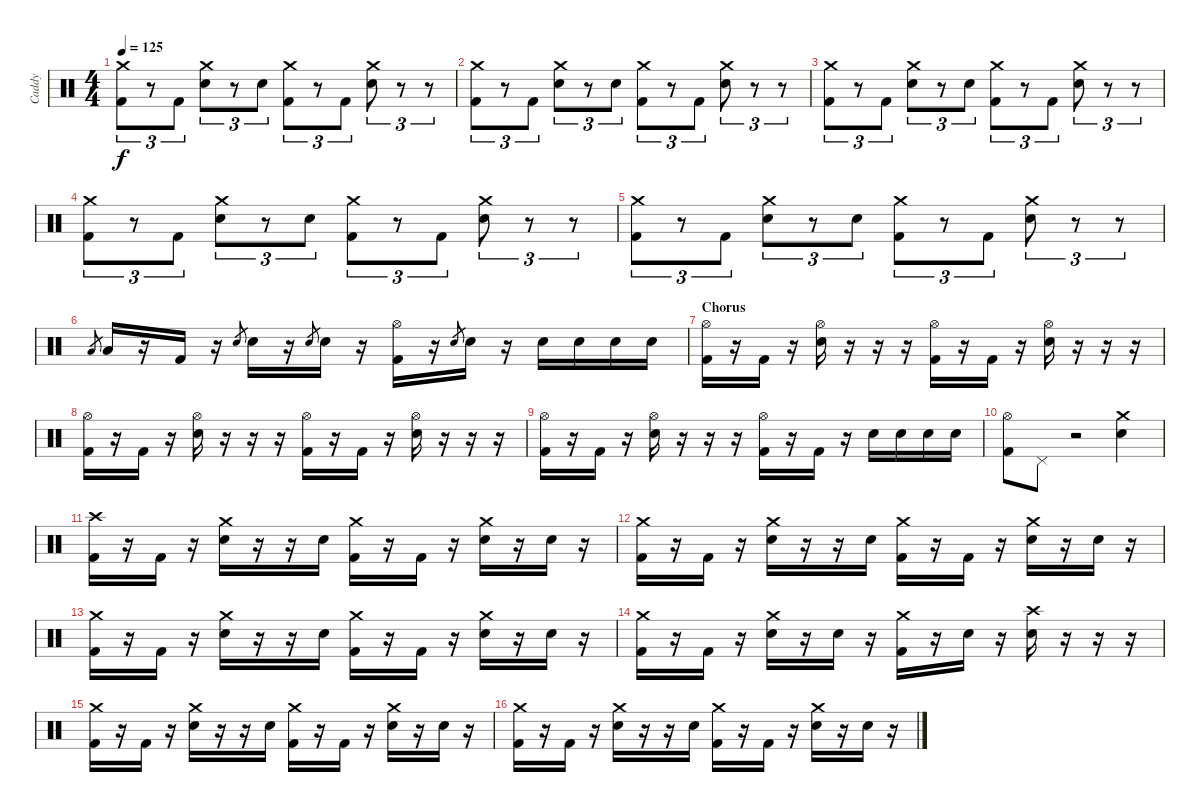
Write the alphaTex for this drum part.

\track ("Caddy" "Caddy") {instrument percussion}
\staff {score}
\articulation defaults
\ts (4 4)
\tempo 125
\clef neutral
\ks c
("Crash medium (hit)" "Kick (hit) 2").8{tu (3 2) dy f} r.8{tu (3 2)} "Kick (hit) 2".8{tu (3 2)} ("Crash medium (hit)" "Electric Snare (hit)").8{tu (3 2)} r.8{tu (3 2)} "Electric Snare (hit)".8{tu (3 2)} ("Crash medium (hit)" "Kick (hit) 2").8{tu (3 2)} r.8{tu (3 2)} "Kick (hit) 2".8{tu (3 2)} ("Crash medium (hit)" "Electric Snare (hit)").8{tu (3 2)} r.8{tu (3 2)} r.8{tu (3 2)} |
("Crash medium (hit)" "Kick (hit) 2").8{tu (3 2)} r.8{tu (3 2)} "Kick (hit) 2".8{tu (3 2)} ("Crash medium (hit)" "Electric Snare (hit)").8{tu (3 2)} r.8{tu (3 2)} "Electric Snare (hit)".8{tu (3 2)} ("Crash medium (hit)" "Kick (hit) 2").8{tu (3 2)} r.8{tu (3 2)} "Kick (hit) 2".8{tu (3 2)} ("Crash medium (hit)" "Electric Snare (hit)").8{tu (3 2)} r.8{tu (3 2)} r.8{tu (3 2)} |
("Crash medium (hit)" "Kick (hit) 2").8{tu (3 2)} r.8{tu (3 2)} "Kick (hit) 2".8{tu (3 2)} ("Crash medium (hit)" "Electric Snare (hit)").8{tu (3 2)} r.8{tu (3 2)} "Electric Snare (hit)".8{tu (3 2)} ("Crash medium (hit)" "Kick (hit) 2").8{tu (3 2)} r.8{tu (3 2)} "Kick (hit) 2".8{tu (3 2)} ("Crash medium (hit)" "Electric Snare (hit)").8{tu (3 2)} r.8{tu (3 2)} r.8{tu (3 2)} |
("Crash medium (hit)" "Kick (hit) 2").8{tu (3 2)} r.8{tu (3 2)} "Kick (hit) 2".8{tu (3 2)} ("Crash medium (hit)" "Electric Snare (hit)").8{tu (3 2)} r.8{tu (3 2)} "Electric Snare (hit)".8{tu (3 2)} ("Crash medium (hit)" "Kick (hit) 2").8{tu (3 2)} r.8{tu (3 2)} "Kick (hit) 2".8{tu (3 2)} ("Crash medium (hit)" "Electric Snare (hit)").8{tu (3 2)} r.8{tu (3 2)} r.8{tu (3 2)} |
("Crash medium (hit)" "Kick (hit) 2").8{tu (3 2)} r.8{tu (3 2)} "Kick (hit) 2".8{tu (3 2)} ("Crash medium (hit)" "Electric Snare (hit)").8{tu (3 2)} r.8{tu (3 2)} "Electric Snare (hit)".8{tu (3 2)} ("Crash medium (hit)" "Kick (hit) 2").8{tu (3 2)} r.8{tu (3 2)} "Kick (hit) 2".8{tu (3 2)} ("Crash medium (hit)" "Electric Snare (hit)").8{tu (3 2)} r.8{tu (3 2)} r.8{tu (3 2)} |
"Low Floor Tom (hit)".8{gr} "Low Floor Tom (hit)".16 r.16 "Kick (hit) 2".16 r.16 "Electric Snare (hit)".8{gr} "Electric Snare (hit)".16 r.16 "Electric Snare (hit)".8{gr} "Electric Snare (hit)".16 r.16 ("Hi-Hat (open)" "Kick (hit) 2").16 r.16 "Electric Snare (hit)".8{gr} "Electric Snare (hit)".16 r.16 "Electric Snare (hit)".16 "Electric Snare (hit)".16 "Electric Snare (hit)".16 "Electric Snare (hit)".16 |
\section ("" "Chorus")
("Hi-Hat (open)" "Kick (hit) 2").16 r.16 "Kick (hit) 2".16 r.16 ("Hi-Hat (open)" "Electric Snare (hit)").16 r.16 r.16 r.16 ("Hi-Hat (open)" "Kick (hit) 2").16 r.16 "Kick (hit) 2".16 r.16 ("Hi-Hat (open)" "Electric Snare (hit)").16 r.16 r.16 r.16 |
("Hi-Hat (open)" "Kick (hit) 2").16 r.16 "Kick (hit) 2".16 r.16 ("Hi-Hat (open)" "Electric Snare (hit)").16 r.16 r.16 r.16 ("Hi-Hat (open)" "Kick (hit) 2").16 r.16 "Kick (hit) 2".16 r.16 ("Hi-Hat (open)" "Electric Snare (hit)").16 r.16 r.16 r.16 |
("Hi-Hat (open)" "Kick (hit) 2").16 r.16 "Kick (hit) 2".16 r.16 ("Hi-Hat (open)" "Electric Snare (hit)").16 r.16 r.16 r.16 ("Hi-Hat (open)" "Kick (hit) 2").16 r.16 "Kick (hit) 2".16 r.16 "Electric Snare (hit)".16 "Electric Snare (hit)".16 "Electric Snare (hit)".16 "Electric Snare (hit)".16 |
("Hi-Hat (open)" "Kick (hit) 2").8 "Pedal Hi-Hat (hit)".8 r.2 ("Crash medium (hit)" "Electric Snare (hit)").4 |
("Crash high (hit)" "Kick (hit) 2").16 r.16 "Kick (hit) 2".16 r.16 ("Crash medium (hit)" "Electric Snare (hit)").16 r.16 r.16 "Electric Snare (hit)".16 ("Crash medium (hit)" "Kick (hit) 2").16 r.16 "Kick (hit) 2".16 r.16 ("Crash medium (hit)" "Electric Snare (hit)").16 r.16 "Electric Snare (hit)".16 r.16 |
("Crash medium (hit)" "Kick (hit) 2").16 r.16 "Kick (hit) 2".16 r.16 ("Crash medium (hit)" "Electric Snare (hit)").16 r.16 r.16 "Electric Snare (hit)".16 ("Crash medium (hit)" "Kick (hit) 2").16 r.16 "Kick (hit) 2".16 r.16 ("Crash medium (hit)" "Electric Snare (hit)").16 r.16 "Electric Snare (hit)".16 r.16 |
("Crash medium (hit)" "Kick (hit) 2").16 r.16 "Kick (hit) 2".16 r.16 ("Crash medium (hit)" "Electric Snare (hit)").16 r.16 r.16 "Electric Snare (hit)".16 ("Crash medium (hit)" "Kick (hit) 2").16 r.16 "Kick (hit) 2".16 r.16 ("Crash medium (hit)" "Electric Snare (hit)").16 r.16 "Electric Snare (hit)".16 r.16 |
("Crash medium (hit)" "Kick (hit) 2").16 r.16 "Kick (hit) 2".16 r.16 ("Crash medium (hit)" "Electric Snare (hit)").16 r.16 "Electric Snare (hit)".16 r.16 ("Crash medium (hit)" "Kick (hit) 2").16 r.16 "Electric Snare (hit)".16 r.16 ("Crash high (hit)" "Electric Snare (hit)").16 r.16 r.16 r.16 |
("Crash medium (hit)" "Kick (hit) 2").16 r.16 "Kick (hit) 2".16 r.16 ("Crash medium (hit)" "Electric Snare (hit)").16 r.16 r.16 "Electric Snare (hit)".16 ("Crash medium (hit)" "Kick (hit) 2").16 r.16 "Kick (hit) 2".16 r.16 ("Crash medium (hit)" "Electric Snare (hit)").16 r.16 "Electric Snare (hit)".16 r.16 |
("Crash medium (hit)" "Kick (hit) 2").16 r.16 "Kick (hit) 2".16 r.16 ("Crash medium (hit)" "Electric Snare (hit)").16 r.16 r.16 "Electric Snare (hit)".16 ("Crash medium (hit)" "Kick (hit) 2").16 r.16 "Kick (hit) 2".16 r.16 ("Crash medium (hit)" "Electric Snare (hit)").16 r.16 "Electric Snare (hit)".16 r.16
